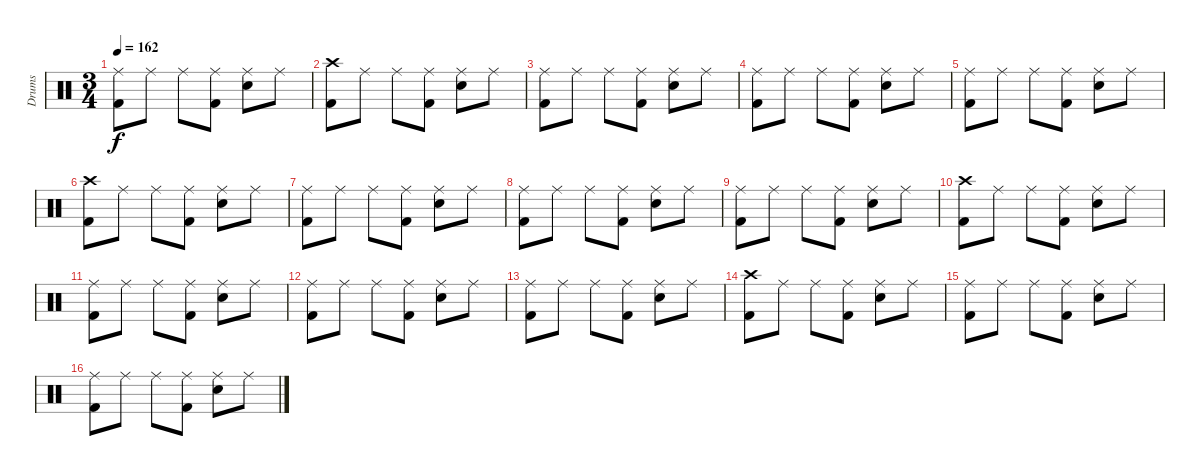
\track ("Drums" "Drums") {instrument percussion}
\staff {score}
\articulation defaults
\ts (3 4)
\tempo 162
\clef neutral
\ks c
("Ride (middle)" "Kick (hit) 2").8{dy f} "Ride (middle)".8 "Ride (middle)".8 ("Ride (middle)" "Kick (hit) 2").8 ("Ride (middle)" "Snare (hit) 2").8 "Ride (middle)".8 |
("Crash high (hit)" "Kick (hit) 2").8 "Ride (middle)".8 "Ride (middle)".8 ("Ride (middle)" "Kick (hit) 2").8 ("Ride (middle)" "Snare (hit) 2").8 "Ride (middle)".8 |
("Ride (middle)" "Kick (hit) 2").8 "Ride (middle)".8 "Ride (middle)".8 ("Ride (middle)" "Kick (hit) 2").8 ("Ride (middle)" "Snare (hit) 2").8 "Ride (middle)".8 |
("Ride (middle)" "Kick (hit) 2").8 "Ride (middle)".8 "Ride (middle)".8 ("Ride (middle)" "Kick (hit) 2").8 ("Ride (middle)" "Snare (hit) 2").8 "Ride (middle)".8 |
("Ride (middle)" "Kick (hit) 2").8 "Ride (middle)".8 "Ride (middle)".8 ("Ride (middle)" "Kick (hit) 2").8 ("Ride (middle)" "Snare (hit) 2").8 "Ride (middle)".8 |
("Crash high (hit)" "Kick (hit) 2").8 "Ride (middle)".8 "Ride (middle)".8 ("Ride (middle)" "Kick (hit) 2").8 ("Ride (middle)" "Snare (hit) 2").8 "Ride (middle)".8 |
("Ride (middle)" "Kick (hit) 2").8 "Ride (middle)".8 "Ride (middle)".8 ("Ride (middle)" "Kick (hit) 2").8 ("Ride (middle)" "Snare (hit) 2").8 "Ride (middle)".8 |
("Ride (middle)" "Kick (hit) 2").8 "Ride (middle)".8 "Ride (middle)".8 ("Ride (middle)" "Kick (hit) 2").8 ("Ride (middle)" "Snare (hit) 2").8 "Ride (middle)".8 |
("Ride (middle)" "Kick (hit) 2").8 "Ride (middle)".8 "Ride (middle)".8 ("Ride (middle)" "Kick (hit) 2").8 ("Ride (middle)" "Snare (hit) 2").8 "Ride (middle)".8 |
("Crash high (hit)" "Kick (hit) 2").8 "Ride (middle)".8 "Ride (middle)".8 ("Ride (middle)" "Kick (hit) 2").8 ("Ride (middle)" "Snare (hit) 2").8 "Ride (middle)".8 |
("Ride (middle)" "Kick (hit) 2").8 "Ride (middle)".8 "Ride (middle)".8 ("Ride (middle)" "Kick (hit) 2").8 ("Ride (middle)" "Snare (hit) 2").8 "Ride (middle)".8 |
("Ride (middle)" "Kick (hit) 2").8 "Ride (middle)".8 "Ride (middle)".8 ("Ride (middle)" "Kick (hit) 2").8 ("Ride (middle)" "Snare (hit) 2").8 "Ride (middle)".8 |
("Ride (middle)" "Kick (hit) 2").8 "Ride (middle)".8 "Ride (middle)".8 ("Ride (middle)" "Kick (hit) 2").8 ("Ride (middle)" "Snare (hit) 2").8 "Ride (middle)".8 |
("Crash high (hit)" "Kick (hit) 2").8 "Ride (middle)".8 "Ride (middle)".8 ("Ride (middle)" "Kick (hit) 2").8 ("Ride (middle)" "Snare (hit) 2").8 "Ride (middle)".8 |
("Ride (middle)" "Kick (hit) 2").8 "Ride (middle)".8 "Ride (middle)".8 ("Ride (middle)" "Kick (hit) 2").8 ("Ride (middle)" "Snare (hit) 2").8 "Ride (middle)".8 |
("Ride (middle)" "Kick (hit) 2").8 "Ride (middle)".8 "Ride (middle)".8 ("Ride (middle)" "Kick (hit) 2").8 ("Ride (middle)" "Snare (hit) 2").8 "Ride (middle)".8
